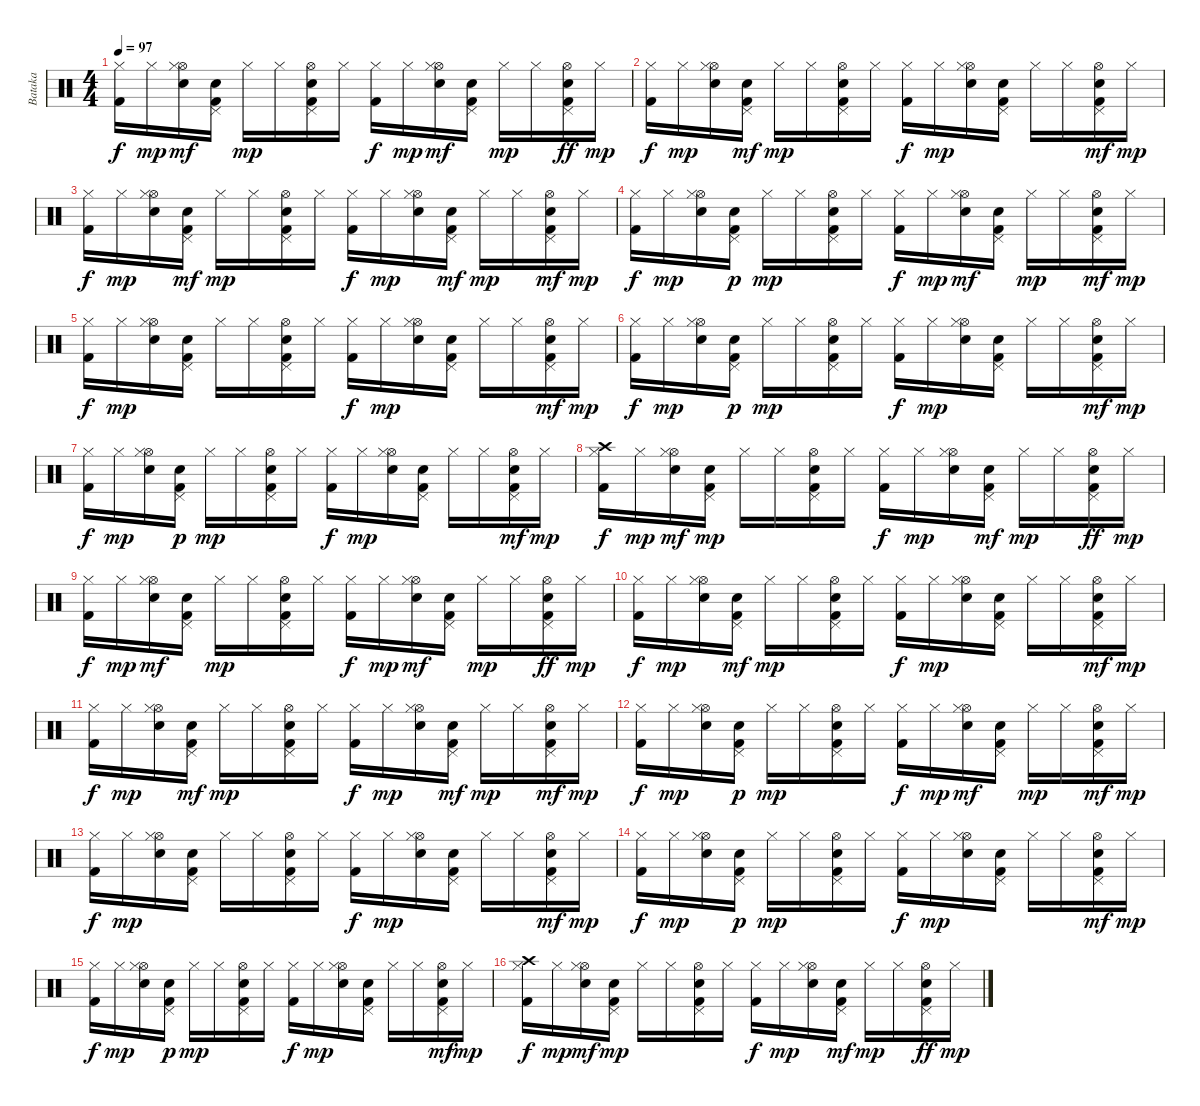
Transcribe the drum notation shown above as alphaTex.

\track ("Bataka" "Bataka") {instrument percussion}
\staff {score}
\articulation defaults
\ts (4 4)
\tempo 97
\clef neutral
\ks c
("Kick (hit) 2" "Hi-Hat (closed)").16{dy f} "Hi-Hat (closed)".16{dy mp} ("Hi-Hat (open)" "Hi-Hat (closed)" "Electric Snare (hit)").16{dy mf} ("Pedal Hi-Hat (hit)" "Kick (hit) 2" "Electric Snare (hit)").16 "Hi-Hat (closed)".16{dy mp} "Hi-Hat (closed)".16 ("Electric Snare (hit)" "Hi-Hat (open)" "Kick (hit) 2" "Pedal Hi-Hat (hit)").16 "Hi-Hat (closed)".16 ("Kick (hit) 2" "Hi-Hat (closed)").16{dy f} "Hi-Hat (closed)".16{dy mp} ("Hi-Hat (open)" "Hi-Hat (closed)" "Electric Snare (hit)").16{dy mf} ("Pedal Hi-Hat (hit)" "Kick (hit) 2" "Electric Snare (hit)").16 "Hi-Hat (closed)".16{dy mp} "Hi-Hat (closed)".16 ("Hi-Hat (open)" "Pedal Hi-Hat (hit)" "Kick (hit) 2" "Electric Snare (hit)").16{dy ff} "Hi-Hat (closed)".16{dy mp} |
("Kick (hit) 2" "Hi-Hat (closed)").16{dy f} "Hi-Hat (closed)".16{dy mp} ("Hi-Hat (open)" "Hi-Hat (closed)" "Electric Snare (hit)").16 ("Pedal Hi-Hat (hit)" "Kick (hit) 2" "Electric Snare (hit)").16{dy mf} "Hi-Hat (closed)".16{dy mp} "Hi-Hat (closed)".16 ("Hi-Hat (open)" "Kick (hit) 2" "Pedal Hi-Hat (hit)" "Electric Snare (hit)").16 "Hi-Hat (closed)".16 ("Kick (hit) 2" "Hi-Hat (closed)").16{dy f} "Hi-Hat (closed)".16{dy mp} ("Hi-Hat (open)" "Hi-Hat (closed)" "Electric Snare (hit)").16 ("Pedal Hi-Hat (hit)" "Kick (hit) 2" "Electric Snare (hit)").16 "Hi-Hat (closed)".16 "Hi-Hat (closed)".16 ("Hi-Hat (open)" "Pedal Hi-Hat (hit)" "Kick (hit) 2" "Electric Snare (hit)").16{dy mf} "Hi-Hat (closed)".16{dy mp} |
("Kick (hit) 2" "Hi-Hat (closed)").16{dy f} "Hi-Hat (closed)".16{dy mp} ("Hi-Hat (open)" "Hi-Hat (closed)" "Electric Snare (hit)").16 ("Pedal Hi-Hat (hit)" "Kick (hit) 2" "Electric Snare (hit)").16{dy mf} "Hi-Hat (closed)".16{dy mp} "Hi-Hat (closed)".16 ("Hi-Hat (open)" "Kick (hit) 2" "Pedal Hi-Hat (hit)" "Electric Snare (hit)").16 "Hi-Hat (closed)".16 ("Kick (hit) 2" "Hi-Hat (closed)").16{dy f} "Hi-Hat (closed)".16{dy mp} ("Electric Snare (hit)" "Hi-Hat (open)" "Hi-Hat (closed)").16 ("Pedal Hi-Hat (hit)" "Kick (hit) 2" "Electric Snare (hit)").16{dy mf} "Hi-Hat (closed)".16{dy mp} "Hi-Hat (closed)".16 ("Hi-Hat (open)" "Pedal Hi-Hat (hit)" "Kick (hit) 2" "Electric Snare (hit)").16{dy mf} "Hi-Hat (closed)".16{dy mp} |
("Kick (hit) 2" "Hi-Hat (closed)").16{dy f} "Hi-Hat (closed)".16{dy mp} ("Electric Snare (hit)" "Hi-Hat (open)" "Hi-Hat (closed)").16 ("Electric Snare (hit)" "Pedal Hi-Hat (hit)" "Kick (hit) 2").16{dy p} "Hi-Hat (closed)".16{dy mp} "Hi-Hat (closed)".16 ("Hi-Hat (open)" "Kick (hit) 2" "Pedal Hi-Hat (hit)" "Electric Snare (hit)").16 "Hi-Hat (closed)".16 ("Kick (hit) 2" "Hi-Hat (closed)").16{dy f} "Hi-Hat (closed)".16{dy mp} ("Hi-Hat (open)" "Hi-Hat (closed)" "Electric Snare (hit)").16{dy mf} ("Pedal Hi-Hat (hit)" "Kick (hit) 2" "Electric Snare (hit)").16 "Hi-Hat (closed)".16{dy mp} "Hi-Hat (closed)".16 ("Hi-Hat (open)" "Pedal Hi-Hat (hit)" "Kick (hit) 2" "Electric Snare (hit)").16{dy mf} "Hi-Hat (closed)".16{dy mp} |
("Kick (hit) 2" "Hi-Hat (closed)").16{dy f} "Hi-Hat (closed)".16{dy mp} ("Hi-Hat (open)" "Hi-Hat (closed)" "Electric Snare (hit)").16 ("Pedal Hi-Hat (hit)" "Kick (hit) 2" "Electric Snare (hit)").16 "Hi-Hat (closed)".16 "Hi-Hat (closed)".16 ("Hi-Hat (open)" "Kick (hit) 2" "Pedal Hi-Hat (hit)" "Electric Snare (hit)").16 "Hi-Hat (closed)".16 ("Kick (hit) 2" "Hi-Hat (closed)").16{dy f} "Hi-Hat (closed)".16{dy mp} ("Electric Snare (hit)" "Hi-Hat (open)" "Hi-Hat (closed)").16 ("Electric Snare (hit)" "Pedal Hi-Hat (hit)" "Kick (hit) 2").16 "Hi-Hat (closed)".16 "Hi-Hat (closed)".16 ("Electric Snare (hit)" "Hi-Hat (open)" "Pedal Hi-Hat (hit)" "Kick (hit) 2").16{dy mf} "Hi-Hat (closed)".16{dy mp} |
("Kick (hit) 2" "Hi-Hat (closed)").16{dy f} "Hi-Hat (closed)".16{dy mp} ("Electric Snare (hit)" "Hi-Hat (open)" "Hi-Hat (closed)").16 ("Electric Snare (hit)" "Pedal Hi-Hat (hit)" "Kick (hit) 2").16{dy p} "Hi-Hat (closed)".16{dy mp} "Hi-Hat (closed)".16 ("Hi-Hat (open)" "Kick (hit) 2" "Pedal Hi-Hat (hit)" "Electric Snare (hit)").16 "Hi-Hat (closed)".16 ("Kick (hit) 2" "Hi-Hat (closed)").16{dy f} "Hi-Hat (closed)".16{dy mp} ("Electric Snare (hit)" "Hi-Hat (open)" "Hi-Hat (closed)").16 ("Electric Snare (hit)" "Pedal Hi-Hat (hit)" "Kick (hit) 2").16 "Hi-Hat (closed)".16 "Hi-Hat (closed)".16 ("Hi-Hat (open)" "Pedal Hi-Hat (hit)" "Kick (hit) 2" "Electric Snare (hit)").16{dy mf} "Hi-Hat (closed)".16{dy mp} |
("Kick (hit) 2" "Hi-Hat (closed)").16{dy f} "Hi-Hat (closed)".16{dy mp} ("Electric Snare (hit)" "Hi-Hat (open)" "Hi-Hat (closed)").16 ("Electric Snare (hit)" "Pedal Hi-Hat (hit)" "Kick (hit) 2").16{dy p} "Hi-Hat (closed)".16{dy mp} "Hi-Hat (closed)".16 ("Electric Snare (hit)" "Hi-Hat (open)" "Kick (hit) 2" "Pedal Hi-Hat (hit)").16 "Hi-Hat (closed)".16 ("Kick (hit) 2" "Hi-Hat (closed)").16{dy f} "Hi-Hat (closed)".16{dy mp} ("Hi-Hat (open)" "Hi-Hat (closed)" "Electric Snare (hit)").16 ("Pedal Hi-Hat (hit)" "Kick (hit) 2" "Electric Snare (hit)").16 "Hi-Hat (closed)".16 "Hi-Hat (closed)".16 ("Electric Snare (hit)" "Hi-Hat (open)" "Pedal Hi-Hat (hit)" "Kick (hit) 2").16{dy mf} "Hi-Hat (closed)".16{dy mp} |
("Crash high (hit)" "Kick (hit) 2" "Hi-Hat (closed)").16{dy f} "Hi-Hat (closed)".16{dy mp} ("Hi-Hat (open)" "Hi-Hat (closed)" "Electric Snare (hit)").16{dy mf} ("Pedal Hi-Hat (hit)" "Kick (hit) 2" "Electric Snare (hit)").16{dy mp} "Hi-Hat (closed)".16 "Hi-Hat (closed)".16 ("Electric Snare (hit)" "Hi-Hat (open)" "Kick (hit) 2" "Pedal Hi-Hat (hit)").16 "Hi-Hat (closed)".16 ("Kick (hit) 2" "Hi-Hat (closed)").16{dy f} "Hi-Hat (closed)".16{dy mp} ("Hi-Hat (open)" "Hi-Hat (closed)" "Electric Snare (hit)").16 ("Pedal Hi-Hat (hit)" "Kick (hit) 2" "Electric Snare (hit)").16{dy mf} "Hi-Hat (closed)".16{dy mp} "Hi-Hat (closed)".16 ("Hi-Hat (open)" "Pedal Hi-Hat (hit)" "Kick (hit) 2" "Electric Snare (hit)").16{dy ff} "Hi-Hat (closed)".16{dy mp} |
("Kick (hit) 2" "Hi-Hat (closed)").16{dy f} "Hi-Hat (closed)".16{dy mp} ("Hi-Hat (open)" "Hi-Hat (closed)" "Electric Snare (hit)").16{dy mf} ("Pedal Hi-Hat (hit)" "Kick (hit) 2" "Electric Snare (hit)").16 "Hi-Hat (closed)".16{dy mp} "Hi-Hat (closed)".16 ("Electric Snare (hit)" "Hi-Hat (open)" "Kick (hit) 2" "Pedal Hi-Hat (hit)").16 "Hi-Hat (closed)".16 ("Kick (hit) 2" "Hi-Hat (closed)").16{dy f} "Hi-Hat (closed)".16{dy mp} ("Hi-Hat (open)" "Hi-Hat (closed)" "Electric Snare (hit)").16{dy mf} ("Pedal Hi-Hat (hit)" "Kick (hit) 2" "Electric Snare (hit)").16 "Hi-Hat (closed)".16{dy mp} "Hi-Hat (closed)".16 ("Hi-Hat (open)" "Pedal Hi-Hat (hit)" "Kick (hit) 2" "Electric Snare (hit)").16{dy ff} "Hi-Hat (closed)".16{dy mp} |
("Kick (hit) 2" "Hi-Hat (closed)").16{dy f} "Hi-Hat (closed)".16{dy mp} ("Hi-Hat (open)" "Hi-Hat (closed)" "Electric Snare (hit)").16 ("Pedal Hi-Hat (hit)" "Kick (hit) 2" "Electric Snare (hit)").16{dy mf} "Hi-Hat (closed)".16{dy mp} "Hi-Hat (closed)".16 ("Hi-Hat (open)" "Kick (hit) 2" "Pedal Hi-Hat (hit)" "Electric Snare (hit)").16 "Hi-Hat (closed)".16 ("Kick (hit) 2" "Hi-Hat (closed)").16{dy f} "Hi-Hat (closed)".16{dy mp} ("Hi-Hat (open)" "Hi-Hat (closed)" "Electric Snare (hit)").16 ("Pedal Hi-Hat (hit)" "Kick (hit) 2" "Electric Snare (hit)").16 "Hi-Hat (closed)".16 "Hi-Hat (closed)".16 ("Hi-Hat (open)" "Pedal Hi-Hat (hit)" "Kick (hit) 2" "Electric Snare (hit)").16{dy mf} "Hi-Hat (closed)".16{dy mp} |
("Kick (hit) 2" "Hi-Hat (closed)").16{dy f} "Hi-Hat (closed)".16{dy mp} ("Hi-Hat (open)" "Hi-Hat (closed)" "Electric Snare (hit)").16 ("Pedal Hi-Hat (hit)" "Kick (hit) 2" "Electric Snare (hit)").16{dy mf} "Hi-Hat (closed)".16{dy mp} "Hi-Hat (closed)".16 ("Hi-Hat (open)" "Kick (hit) 2" "Pedal Hi-Hat (hit)" "Electric Snare (hit)").16 "Hi-Hat (closed)".16 ("Kick (hit) 2" "Hi-Hat (closed)").16{dy f} "Hi-Hat (closed)".16{dy mp} ("Electric Snare (hit)" "Hi-Hat (open)" "Hi-Hat (closed)").16 ("Pedal Hi-Hat (hit)" "Kick (hit) 2" "Electric Snare (hit)").16{dy mf} "Hi-Hat (closed)".16{dy mp} "Hi-Hat (closed)".16 ("Hi-Hat (open)" "Pedal Hi-Hat (hit)" "Kick (hit) 2" "Electric Snare (hit)").16{dy mf} "Hi-Hat (closed)".16{dy mp} |
("Kick (hit) 2" "Hi-Hat (closed)").16{dy f} "Hi-Hat (closed)".16{dy mp} ("Electric Snare (hit)" "Hi-Hat (open)" "Hi-Hat (closed)").16 ("Electric Snare (hit)" "Pedal Hi-Hat (hit)" "Kick (hit) 2").16{dy p} "Hi-Hat (closed)".16{dy mp} "Hi-Hat (closed)".16 ("Hi-Hat (open)" "Kick (hit) 2" "Pedal Hi-Hat (hit)" "Electric Snare (hit)").16 "Hi-Hat (closed)".16 ("Kick (hit) 2" "Hi-Hat (closed)").16{dy f} "Hi-Hat (closed)".16{dy mp} ("Hi-Hat (open)" "Hi-Hat (closed)" "Electric Snare (hit)").16{dy mf} ("Pedal Hi-Hat (hit)" "Kick (hit) 2" "Electric Snare (hit)").16 "Hi-Hat (closed)".16{dy mp} "Hi-Hat (closed)".16 ("Hi-Hat (open)" "Pedal Hi-Hat (hit)" "Kick (hit) 2" "Electric Snare (hit)").16{dy mf} "Hi-Hat (closed)".16{dy mp} |
("Kick (hit) 2" "Hi-Hat (closed)").16{dy f} "Hi-Hat (closed)".16{dy mp} ("Hi-Hat (open)" "Hi-Hat (closed)" "Electric Snare (hit)").16 ("Pedal Hi-Hat (hit)" "Kick (hit) 2" "Electric Snare (hit)").16 "Hi-Hat (closed)".16 "Hi-Hat (closed)".16 ("Hi-Hat (open)" "Kick (hit) 2" "Pedal Hi-Hat (hit)" "Electric Snare (hit)").16 "Hi-Hat (closed)".16 ("Kick (hit) 2" "Hi-Hat (closed)").16{dy f} "Hi-Hat (closed)".16{dy mp} ("Electric Snare (hit)" "Hi-Hat (open)" "Hi-Hat (closed)").16 ("Electric Snare (hit)" "Pedal Hi-Hat (hit)" "Kick (hit) 2").16 "Hi-Hat (closed)".16 "Hi-Hat (closed)".16 ("Electric Snare (hit)" "Hi-Hat (open)" "Pedal Hi-Hat (hit)" "Kick (hit) 2").16{dy mf} "Hi-Hat (closed)".16{dy mp} |
("Kick (hit) 2" "Hi-Hat (closed)").16{dy f} "Hi-Hat (closed)".16{dy mp} ("Electric Snare (hit)" "Hi-Hat (open)" "Hi-Hat (closed)").16 ("Electric Snare (hit)" "Pedal Hi-Hat (hit)" "Kick (hit) 2").16{dy p} "Hi-Hat (closed)".16{dy mp} "Hi-Hat (closed)".16 ("Hi-Hat (open)" "Kick (hit) 2" "Pedal Hi-Hat (hit)" "Electric Snare (hit)").16 "Hi-Hat (closed)".16 ("Kick (hit) 2" "Hi-Hat (closed)").16{dy f} "Hi-Hat (closed)".16{dy mp} ("Electric Snare (hit)" "Hi-Hat (open)" "Hi-Hat (closed)").16 ("Electric Snare (hit)" "Pedal Hi-Hat (hit)" "Kick (hit) 2").16 "Hi-Hat (closed)".16 "Hi-Hat (closed)".16 ("Hi-Hat (open)" "Pedal Hi-Hat (hit)" "Kick (hit) 2" "Electric Snare (hit)").16{dy mf} "Hi-Hat (closed)".16{dy mp} |
("Kick (hit) 2" "Hi-Hat (closed)").16{dy f} "Hi-Hat (closed)".16{dy mp} ("Electric Snare (hit)" "Hi-Hat (open)" "Hi-Hat (closed)").16 ("Electric Snare (hit)" "Pedal Hi-Hat (hit)" "Kick (hit) 2").16{dy p} "Hi-Hat (closed)".16{dy mp} "Hi-Hat (closed)".16 ("Electric Snare (hit)" "Hi-Hat (open)" "Kick (hit) 2" "Pedal Hi-Hat (hit)").16 "Hi-Hat (closed)".16 ("Kick (hit) 2" "Hi-Hat (closed)").16{dy f} "Hi-Hat (closed)".16{dy mp} ("Hi-Hat (open)" "Hi-Hat (closed)" "Electric Snare (hit)").16 ("Pedal Hi-Hat (hit)" "Kick (hit) 2" "Electric Snare (hit)").16 "Hi-Hat (closed)".16 "Hi-Hat (closed)".16 ("Electric Snare (hit)" "Hi-Hat (open)" "Pedal Hi-Hat (hit)" "Kick (hit) 2").16{dy mf} "Hi-Hat (closed)".16{dy mp} |
("Crash high (hit)" "Kick (hit) 2" "Hi-Hat (closed)").16{dy f} "Hi-Hat (closed)".16{dy mp} ("Hi-Hat (open)" "Hi-Hat (closed)" "Electric Snare (hit)").16{dy mf} ("Pedal Hi-Hat (hit)" "Kick (hit) 2" "Electric Snare (hit)").16{dy mp} "Hi-Hat (closed)".16 "Hi-Hat (closed)".16 ("Electric Snare (hit)" "Hi-Hat (open)" "Kick (hit) 2" "Pedal Hi-Hat (hit)").16 "Hi-Hat (closed)".16 ("Kick (hit) 2" "Hi-Hat (closed)").16{dy f} "Hi-Hat (closed)".16{dy mp} ("Hi-Hat (open)" "Hi-Hat (closed)" "Electric Snare (hit)").16 ("Pedal Hi-Hat (hit)" "Kick (hit) 2" "Electric Snare (hit)").16{dy mf} "Hi-Hat (closed)".16{dy mp} "Hi-Hat (closed)".16 ("Hi-Hat (open)" "Pedal Hi-Hat (hit)" "Kick (hit) 2" "Electric Snare (hit)").16{dy ff} "Hi-Hat (closed)".16{dy mp}
